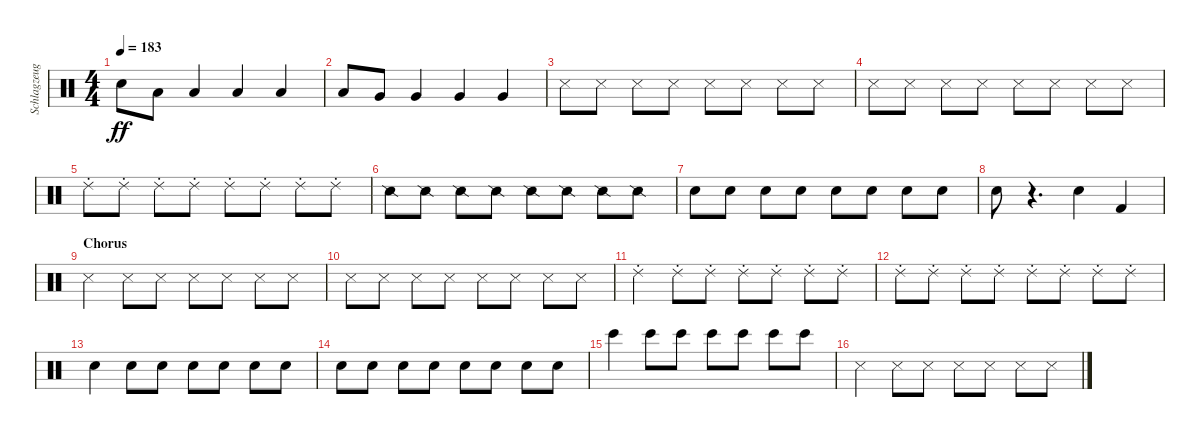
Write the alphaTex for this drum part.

\track ("Schlagzeug - Bela B." "Schlagzeug") {instrument percussion}
\staff {score}
\articulation defaults
\ts (4 4)
\tempo 183
\clef neutral
\ks c "Electric Snare (hit)".8{dy ff} "Low Floor Tom (hit)".8 "Low Floor Tom (hit)".4 "Low Floor Tom (hit)".4 "Low Floor Tom (hit)".4
|
"Low Floor Tom (hit)".8 "Very Low Tom (hit)".8 "Very Low Tom (hit)".4 "Very Low Tom (hit)".4 "Very Low Tom (hit)".4 |
"Metronome (hit)".8 "Metronome (hit)".8 "Metronome (hit)".8 "Metronome (hit)".8 "Metronome (hit)".8 "Metronome (hit)".8 "Metronome (hit)".8 "Metronome (hit)".8 |
"Metronome (hit)".8 "Metronome (hit)".8 "Metronome (hit)".8 "Metronome (hit)".8 "Metronome (hit)".8 "Metronome (hit)".8 "Metronome (hit)".8 "Metronome (hit)".8 |
"Ride (choke) 2".8 "Ride (choke) 2".8 "Ride (choke) 2".8 "Ride (choke) 2".8 "Ride (choke) 2".8 "Ride (choke) 2".8 "Ride (choke) 2".8 "Ride (choke) 2".8 |
"Snare (side stick) 2".8 "Snare (side stick) 2".8 "Snare (side stick) 2".8 "Snare (side stick) 2".8 "Snare (side stick) 2".8 "Snare (side stick) 2".8 "Snare (side stick) 2".8 "Snare (side stick) 2".8 |
"Electric Snare (hit)".8 "Electric Snare (hit)".8 "Electric Snare (hit)".8 "Electric Snare (hit)".8 "Electric Snare (hit)".8 "Electric Snare (hit)".8 "Electric Snare (hit)".8 "Electric Snare (hit)".8 |
"Electric Snare (hit)".8 r.4{d} "Snare (hit) 2".4 "Kick (hit) 2".4 |
\section ("" "Chorus")
"Metronome (hit)".4 "Metronome (hit)".8 "Metronome (hit)".8 "Metronome (hit)".8 "Metronome (hit)".8 "Metronome (hit)".8 "Metronome (hit)".8 |
"Metronome (hit)".8 "Metronome (hit)".8 "Metronome (hit)".8 "Metronome (hit)".8 "Metronome (hit)".8 "Metronome (hit)".8 "Metronome (hit)".8 "Metronome (hit)".8 |
"Ride (choke) 2".4 "Ride (choke) 2".8 "Ride (choke) 2".8 "Ride (choke) 2".8 "Ride (choke) 2".8 "Ride (choke) 2".8 "Ride (choke) 2".8 |
"Ride (choke) 2".8 "Ride (choke) 2".8 "Ride (choke) 2".8 "Ride (choke) 2".8 "Ride (choke) 2".8 "Ride (choke) 2".8 "Ride (choke) 2".8 "Ride (choke) 2".8 |
"Snare (hit) 2".4 "Snare (hit) 2".8 "Snare (hit) 2".8 "Snare (hit) 2".8 "Snare (hit) 2".8 "Snare (hit) 2".8 "Snare (hit) 2".8 |
"Snare (hit) 2".8 "Snare (hit) 2".8 "Snare (hit) 2".8 "Snare (hit) 2".8 "Snare (hit) 2".8 "Snare (hit) 2".8 "Snare (hit) 2".8 "Snare (hit) 2".8 |
"Bongo High (hit)".4 "Bongo High (hit)".8 "Bongo High (hit)".8 "Bongo High (hit)".8 "Bongo High (hit)".8 "Bongo High (hit)".8 "Bongo High (hit)".8 |
"Metronome (hit)".4 "Metronome (hit)".8 "Metronome (hit)".8 "Metronome (hit)".8 "Metronome (hit)".8 "Metronome (hit)".8 "Metronome (hit)".8
